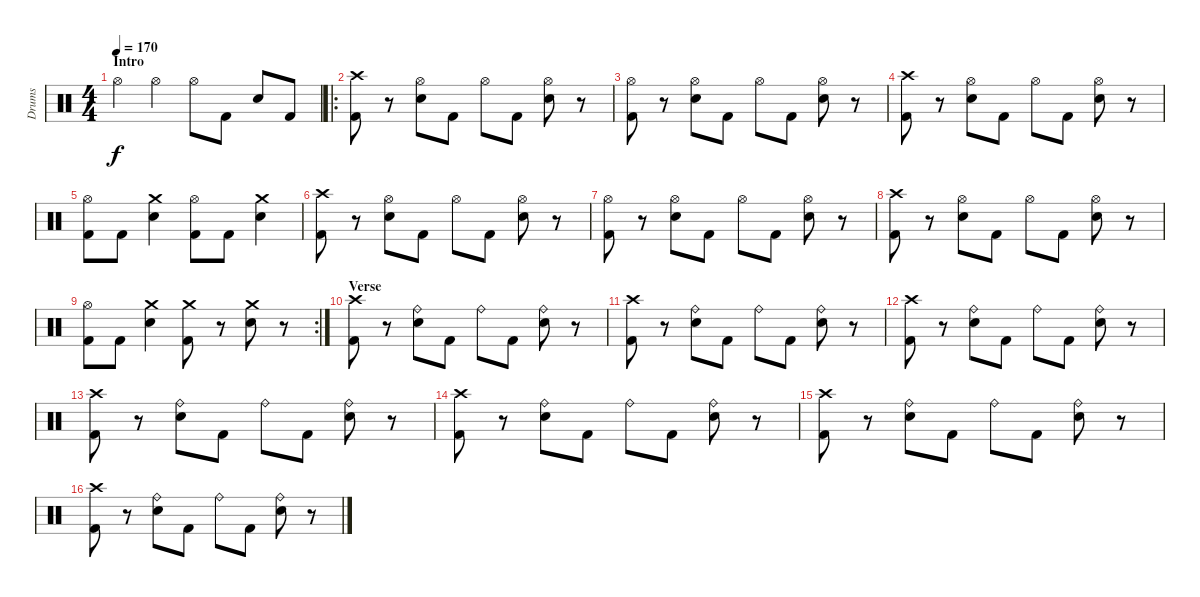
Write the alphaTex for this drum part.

\track ("Drums" "Drums") {instrument percussion}
\staff {score}
\articulation defaults
\ts (4 4)
\section ("" "Intro")
\tempo 170
\clef neutral
\ks c "Hi-Hat (open)".4{dy f} "Hi-Hat (open)".4 "Hi-Hat (open)".8 "Kick (hit) 2".8 "Snare (hit) 2".8 "Kick (hit) 2".8
|
\ro
("Crash high (hit)" "Kick (hit) 2").8 r.8 ("Hi-Hat (open)" "Snare (hit) 2").8 "Kick (hit) 2".8 "Hi-Hat (open)".8 "Kick (hit) 2".8 ("Hi-Hat (open)" "Snare (hit) 2").8 r.8 |
("Hi-Hat (open)" "Kick (hit) 2").8 r.8 ("Hi-Hat (open)" "Snare (hit) 2").8 "Kick (hit) 2".8 "Hi-Hat (open)".8 "Kick (hit) 2".8 ("Hi-Hat (open)" "Snare (hit) 2").8 r.8 |
("Crash high (hit)" "Kick (hit) 2").8 r.8 ("Hi-Hat (open)" "Snare (hit) 2").8 "Kick (hit) 2".8 "Hi-Hat (open)".8 "Kick (hit) 2".8 ("Hi-Hat (open)" "Snare (hit) 2").8 r.8 |
("Hi-Hat (open)" "Kick (hit) 2").8 "Kick (hit) 2".8 ("Crash medium (hit)" "Snare (hit) 2").4 ("Hi-Hat (open)" "Kick (hit) 2").8 "Kick (hit) 2".8 ("Crash medium (hit)" "Snare (hit) 2").4 |
("Crash high (hit)" "Kick (hit) 2").8 r.8 ("Hi-Hat (open)" "Snare (hit) 2").8 "Kick (hit) 2".8 "Hi-Hat (open)".8 "Kick (hit) 2".8 ("Hi-Hat (open)" "Snare (hit) 2").8 r.8 |
("Hi-Hat (open)" "Kick (hit) 2").8 r.8 ("Hi-Hat (open)" "Snare (hit) 2").8 "Kick (hit) 2".8 "Hi-Hat (open)".8 "Kick (hit) 2".8 ("Hi-Hat (open)" "Snare (hit) 2").8 r.8 |
("Crash high (hit)" "Kick (hit) 2").8 r.8 ("Hi-Hat (open)" "Snare (hit) 2").8 "Kick (hit) 2".8 "Hi-Hat (open)".8 "Kick (hit) 2".8 ("Hi-Hat (open)" "Snare (hit) 2").8 r.8 |
\rc 2
("Hi-Hat (open)" "Kick (hit) 2").8 "Kick (hit) 2".8 ("Crash medium (hit)" "Snare (hit) 2").4 ("Crash medium (hit)" "Kick (hit) 2").8 r.8 ("Crash medium (hit)" "Snare (hit) 2").8 r.8 |
\section ("" "Verse")
("Crash high (hit)" "Kick (hit) 2").8 r.8 ("Ride (bell)" "Snare (hit) 2").8 "Kick (hit) 2".8 "Ride (bell)".8 "Kick (hit) 2".8 ("Ride (bell)" "Snare (hit) 2").8 r.8 |
("Crash high (hit)" "Kick (hit) 2").8 r.8 ("Ride (bell)" "Snare (hit) 2").8 "Kick (hit) 2".8 "Ride (bell)".8 "Kick (hit) 2".8 ("Ride (bell)" "Snare (hit) 2").8 r.8 |
("Crash high (hit)" "Kick (hit) 2").8 r.8 ("Ride (bell)" "Snare (hit) 2").8 "Kick (hit) 2".8 "Ride (bell)".8 "Kick (hit) 2".8 ("Ride (bell)" "Snare (hit) 2").8 r.8 |
("Crash high (hit)" "Kick (hit) 2").8 r.8 ("Ride (bell)" "Snare (hit) 2").8 "Kick (hit) 2".8 "Ride (bell)".8 "Kick (hit) 2".8 ("Ride (bell)" "Snare (hit) 2").8 r.8 |
("Crash high (hit)" "Kick (hit) 2").8 r.8 ("Ride (bell)" "Snare (hit) 2").8 "Kick (hit) 2".8 "Ride (bell)".8 "Kick (hit) 2".8 ("Ride (bell)" "Snare (hit) 2").8 r.8 |
("Crash high (hit)" "Kick (hit) 2").8 r.8 ("Ride (bell)" "Snare (hit) 2").8 "Kick (hit) 2".8 "Ride (bell)".8 "Kick (hit) 2".8 ("Ride (bell)" "Snare (hit) 2").8 r.8 |
("Crash high (hit)" "Kick (hit) 2").8 r.8 ("Ride (bell)" "Snare (hit) 2").8 "Kick (hit) 2".8 "Ride (bell)".8 "Kick (hit) 2".8 ("Ride (bell)" "Snare (hit) 2").8 r.8
